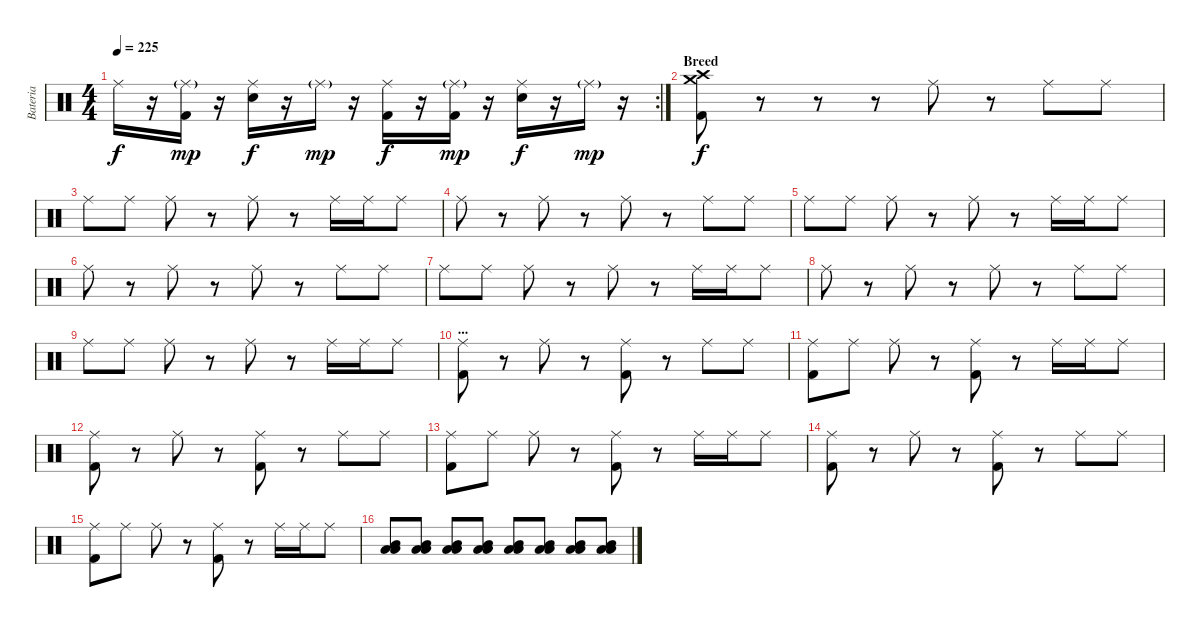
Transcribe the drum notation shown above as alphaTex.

\track ("Bateria" "Bateria") {instrument percussion}
\staff {score}
\articulation defaults
\rc 2
\ts (4 4)
\tempo 225
\clef neutral
\ks c "Ride (middle)".16{dy f}
r.16 ("Ride (middle)"{g} "Kick (hit) 2").16{dy mp} r.16 ("Ride (middle)" "Electric Snare (hit)").16{dy f} r.16 "Ride (middle)"{g}.16{dy mp} r.16 ("Ride (middle)" "Kick (hit) 2").16{dy f} r.16 ("Ride (middle)"{g} "Kick (hit) 2").16{dy mp} r.16 ("Ride (middle)" "Electric Snare (hit)").16{dy f} r.16 "Ride (middle)"{g}.16{dy mp} r.16 |
\section ("" "Breed")
("Crash high (hit)" "Crash medium (hit)" "Kick (hit) 2").8{dy f} r.8 r.8 r.8 "Ride (middle)".8 r.8 "Ride (middle)".8 "Ride (middle)".8 |
"Ride (middle)".8 "Ride (middle)".8 "Ride (middle)".8 r.8 "Ride (middle)".8 r.8 "Ride (middle)".16 "Ride (middle)".16 "Ride (middle)".8 |
"Ride (middle)".8 r.8 "Ride (middle)".8 r.8 "Ride (middle)".8 r.8 "Ride (middle)".8 "Ride (middle)".8 |
"Ride (middle)".8 "Ride (middle)".8 "Ride (middle)".8 r.8 "Ride (middle)".8 r.8 "Ride (middle)".16 "Ride (middle)".16 "Ride (middle)".8 |
"Ride (middle)".8 r.8 "Ride (middle)".8 r.8 "Ride (middle)".8 r.8 "Ride (middle)".8 "Ride (middle)".8 |
"Ride (middle)".8 "Ride (middle)".8 "Ride (middle)".8 r.8 "Ride (middle)".8 r.8 "Ride (middle)".16 "Ride (middle)".16 "Ride (middle)".8 |
"Ride (middle)".8 r.8 "Ride (middle)".8 r.8 "Ride (middle)".8 r.8 "Ride (middle)".8 "Ride (middle)".8 |
"Ride (middle)".8 "Ride (middle)".8 "Ride (middle)".8 r.8 "Ride (middle)".8 r.8 "Ride (middle)".16 "Ride (middle)".16 "Ride (middle)".8 |
\section ("" "...")
("Ride (middle)" "Kick (hit) 2").8 r.8 "Ride (middle)".8 r.8 ("Ride (middle)" "Kick (hit) 2").8 r.8 "Ride (middle)".8 "Ride (middle)".8 |
("Ride (middle)" "Kick (hit) 2").8 "Ride (middle)".8 "Ride (middle)".8 r.8 ("Ride (middle)" "Kick (hit) 2").8 r.8 "Ride (middle)".16 "Ride (middle)".16 "Ride (middle)".8 |
("Ride (middle)" "Kick (hit) 2").8 r.8 "Ride (middle)".8 r.8 ("Ride (middle)" "Kick (hit) 2").8 r.8 "Ride (middle)".8 "Ride (middle)".8 |
("Ride (middle)" "Kick (hit) 2").8 "Ride (middle)".8 "Ride (middle)".8 r.8 ("Ride (middle)" "Kick (hit) 2").8 r.8 "Ride (middle)".16 "Ride (middle)".16 "Ride (middle)".8 |
("Ride (middle)" "Kick (hit) 2").8 r.8 "Ride (middle)".8 r.8 ("Ride (middle)" "Kick (hit) 2").8 r.8 "Ride (middle)".8 "Ride (middle)".8 |
("Ride (middle)" "Kick (hit) 2").8 "Ride (middle)".8 "Ride (middle)".8 r.8 ("Ride (middle)" "Kick (hit) 2").8 r.8 "Ride (middle)".16 "Ride (middle)".16 "Ride (middle)".8 |
("Mid Tom (hit)" "Low Tom (hit)" "Low Tom (hit)").8 ("Mid Tom (hit)" "Low Tom (hit)" "Low Tom (hit)").8 ("Mid Tom (hit)" "Low Tom (hit)" "Low Tom (hit)").8 ("Mid Tom (hit)" "Low Tom (hit)" "Low Tom (hit)").8 ("Mid Tom (hit)" "Low Tom (hit)" "Low Tom (hit)").8 ("Mid Tom (hit)" "Low Tom (hit)" "Low Tom (hit)").8 ("Mid Tom (hit)" "Low Tom (hit)" "Low Tom (hit)").8 ("Mid Tom (hit)" "Low Tom (hit)" "Low Tom (hit)").8
